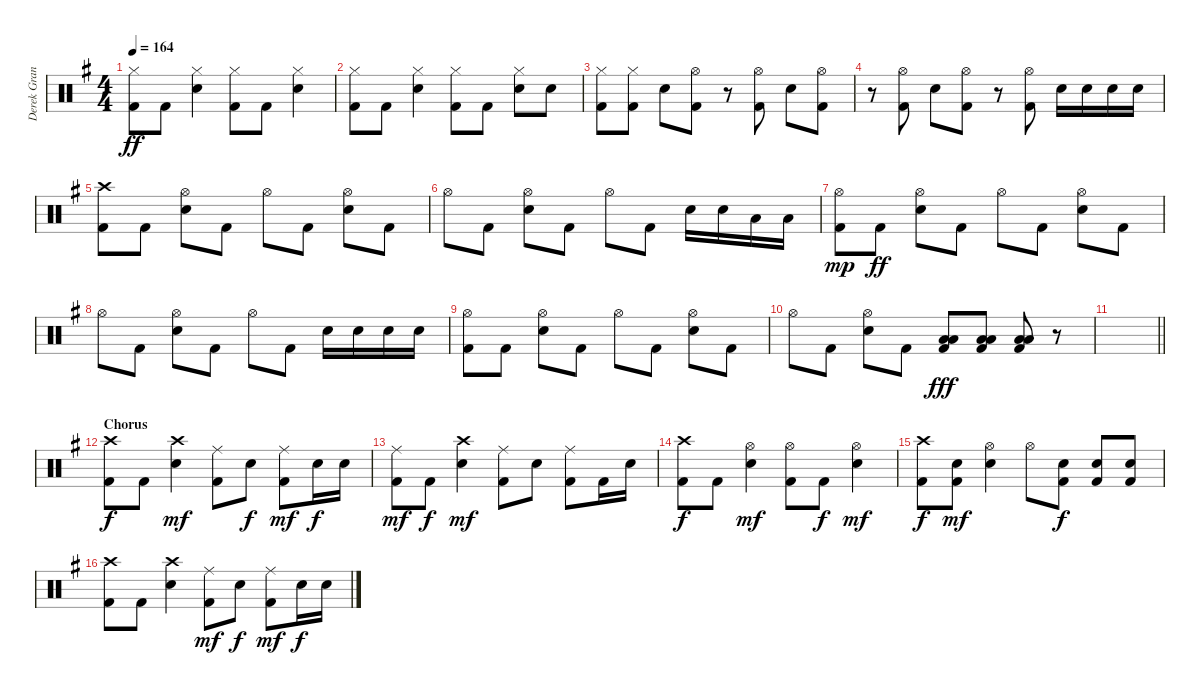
\track ("Derek Grant - Drums" "Derek Gran") {instrument percussion}
\staff {score}
\articulation defaults
\ts (4 4)
\tempo 164
\clef neutral
\ks eminor
("Kick (hit) 2" "Hi-Hat (closed)").8{dy ff} "Kick (hit) 2".8 ("Snare (hit) 2" "Hi-Hat (closed)").4 ("Kick (hit) 2" "Hi-Hat (closed)").8 "Kick (hit) 2".8 ("Snare (hit) 2" "Hi-Hat (closed)").4 |
("Kick (hit) 2" "Hi-Hat (closed)").8 "Kick (hit) 2".8 ("Snare (hit) 2" "Hi-Hat (closed)").4 ("Kick (hit) 2" "Hi-Hat (closed)").8 "Kick (hit) 2".8 ("Snare (hit) 2" "Hi-Hat (closed)").8 "Snare (hit) 2".8 |
("Kick (hit) 2" "Hi-Hat (closed)").8 ("Kick (hit) 2" "Hi-Hat (closed)").8 "Snare (hit) 2".8 ("Kick (hit) 2" "Hi-Hat (open)").8 r.8 ("Kick (hit) 2" "Hi-Hat (open)").8 "Snare (hit) 2".8 ("Hi-Hat (open)" "Kick (hit) 2").8 |
r.8 ("Kick (hit) 2" "Hi-Hat (open)").8 "Snare (hit) 2".8 ("Hi-Hat (open)" "Kick (hit) 2").8 r.8 ("Kick (hit) 2" "Hi-Hat (open)").8 "Snare (hit) 2".16 "Snare (hit) 2".16 "Snare (hit) 2".16 "Snare (hit) 2".16 |
("Kick (hit) 2" "Crash high (hit)").8 "Kick (hit) 2".8 ("Snare (hit) 2" "Hi-Hat (open)").8 "Kick (hit) 2".8 "Hi-Hat (open)".8 "Kick (hit) 2".8 ("Snare (hit) 2" "Hi-Hat (open)").8 "Kick (hit) 2".8 |
"Hi-Hat (open)".8 "Kick (hit) 2".8 ("Snare (hit) 2" "Hi-Hat (open)").8 "Kick (hit) 2".8 "Hi-Hat (open)".8 "Kick (hit) 2".8 "Snare (hit) 2".16 "Snare (hit) 2".16 "Low Tom (hit)".16 "Low Tom (hit)".16 |
("Kick (hit) 2" "Hi-Hat (open)").8{dy mp} "Kick (hit) 2".8{dy ff} ("Snare (hit) 2" "Hi-Hat (open)").8 "Kick (hit) 2".8 "Hi-Hat (open)".8 "Kick (hit) 2".8 ("Snare (hit) 2" "Hi-Hat (open)").8 "Kick (hit) 2".8 |
"Hi-Hat (open)".8 "Kick (hit) 2".8 ("Snare (hit) 2" "Hi-Hat (open)").8 "Kick (hit) 2".8 "Hi-Hat (open)".8 "Kick (hit) 2".8 "Snare (hit) 2".16 "Snare (hit) 2".16 "Snare (hit) 2".16 "Snare (hit) 2".16 |
("Kick (hit) 2" "Hi-Hat (open)").8 "Kick (hit) 2".8 ("Snare (hit) 2" "Hi-Hat (open)").8 "Kick (hit) 2".8 "Hi-Hat (open)".8 "Kick (hit) 2".8 ("Snare (hit) 2" "Hi-Hat (open)").8 "Kick (hit) 2".8 |
"Hi-Hat (open)".8 "Kick (hit) 2".8 ("Snare (hit) 2" "Hi-Hat (open)").8 "Kick (hit) 2".8 ("Low Tom (hit)" "Low Floor Tom (hit)" "Kick (hit) 2").8{dy fff} ("Low Tom (hit)" "Low Floor Tom (hit)" "Kick (hit) 2").8 ("Low Tom (hit)" "Low Floor Tom (hit)" "Kick (hit) 2").8 r.8 |
\barLineRight lightlight
|
\section ("" "Chorus")
("Kick (hit) 2" "Crash high (hit)").8{dy f} "Kick (hit) 2".8 ("Snare (hit) 2" "Crash high (hit)").4{dy mf} ("Kick (hit) 2" "Ride (middle)").8 "Electric Snare (hit)".8{dy f} ("Kick (hit) 2" "Ride (middle)").8{dy mf} "Electric Snare (hit)".16{dy f} "Electric Snare (hit)".16 |
("Kick (hit) 2" "Ride (middle)").8{dy mf} "Kick (hit) 2".8{dy f} ("Snare (hit) 2" "Crash high (hit)").4{dy mf} ("Kick (hit) 2" "Ride (middle)").8 "Snare (hit) 2".8 ("Kick (hit) 2" "Ride (middle)").8 "Kick (hit) 2".16 "Snare (hit) 2".16 |
("Kick (hit) 2" "Crash high (hit)").8{dy f} "Kick (hit) 2".8 ("Snare (hit) 2" "Hi-Hat (open)").4{dy mf} ("Kick (hit) 2" "Hi-Hat (open)").8 "Kick (hit) 2".8{dy f} ("Snare (hit) 2" "Hi-Hat (open)").4{dy mf} |
("Kick (hit) 2" "Crash high (hit)").8{dy f} ("Kick (hit) 2" "Snare (hit) 2").8{dy mf} ("Snare (hit) 2" "Hi-Hat (open)").4 "Hi-Hat (open)".8 ("Snare (hit) 2" "Kick (hit) 2").8{dy f} ("Snare (hit) 2" "Kick (hit) 2").8 ("Snare (hit) 2" "Kick (hit) 2").8 |
("Kick (hit) 2" "Crash high (hit)").8 "Kick (hit) 2".8 ("Snare (hit) 2" "Crash high (hit)").4 ("Kick (hit) 2" "Ride (middle)").8{dy mf} "Electric Snare (hit)".8{dy f} ("Kick (hit) 2" "Ride (middle)").8{dy mf} "Electric Snare (hit)".16{dy f} "Electric Snare (hit)".16
